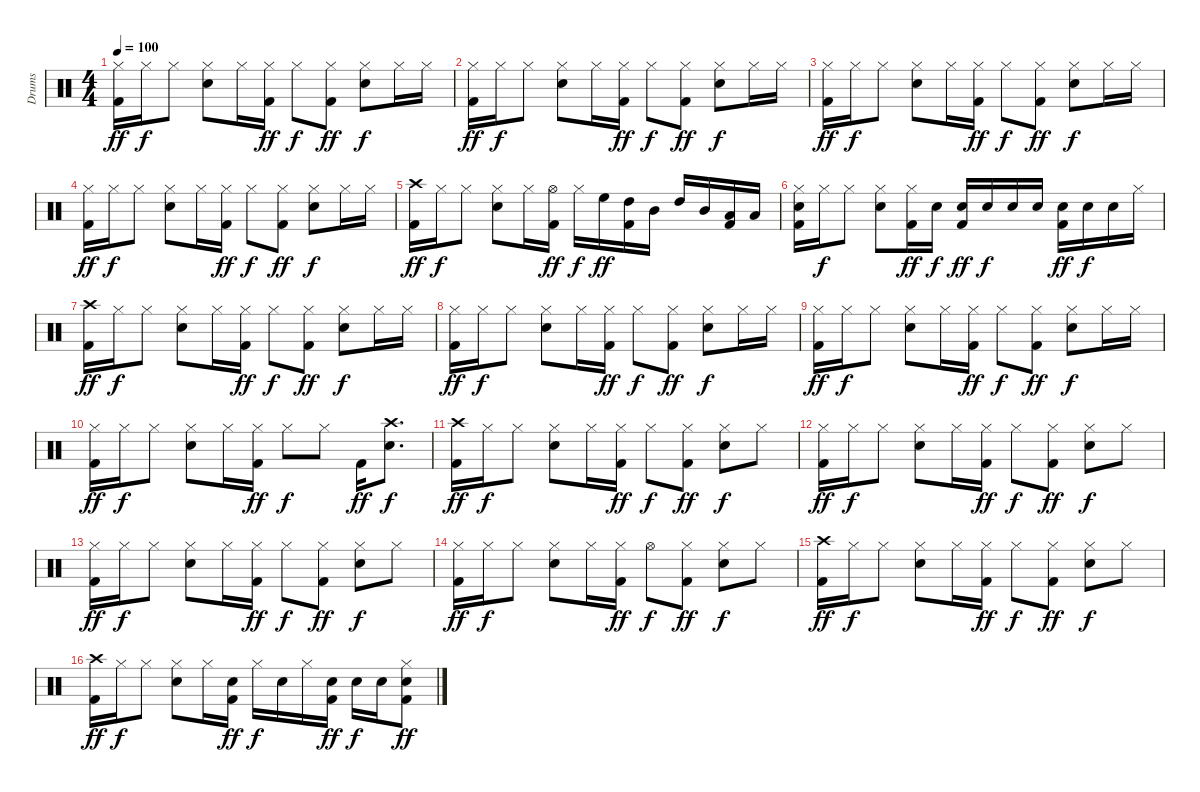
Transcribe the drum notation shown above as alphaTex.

\track ("Drums" "Drums") {instrument percussion}
\staff {score}
\articulation defaults
\ts (4 4)
\tempo 100
\clef neutral
\ks c
("Hi-Hat (closed)" "Kick (hit) 2").16{dy ff} "Hi-Hat (closed)".16{dy f} "Hi-Hat (closed)".8 ("Hi-Hat (closed)" "Snare (hit) 2").8 "Hi-Hat (closed)".16 ("Hi-Hat (closed)" "Kick (hit) 2").16{dy ff} "Hi-Hat (closed)".8{dy f} ("Hi-Hat (closed)" "Kick (hit) 2").8{dy ff} ("Hi-Hat (closed)" "Snare (hit) 2").8{dy f} "Hi-Hat (closed)".16 "Hi-Hat (closed)".16 |
("Hi-Hat (closed)" "Kick (hit) 2").16{dy ff} "Hi-Hat (closed)".16{dy f} "Hi-Hat (closed)".8 ("Hi-Hat (closed)" "Snare (hit) 2").8 "Hi-Hat (closed)".16 ("Hi-Hat (closed)" "Kick (hit) 2").16{dy ff} "Hi-Hat (closed)".8{dy f} ("Hi-Hat (closed)" "Kick (hit) 2").8{dy ff} ("Hi-Hat (closed)" "Snare (hit) 2").8{dy f} "Hi-Hat (closed)".16 "Hi-Hat (closed)".16 |
("Hi-Hat (closed)" "Kick (hit) 2").16{dy ff} "Hi-Hat (closed)".16{dy f} "Hi-Hat (closed)".8 ("Hi-Hat (closed)" "Snare (hit) 2").8 "Hi-Hat (closed)".16 ("Hi-Hat (closed)" "Kick (hit) 2").16{dy ff} "Hi-Hat (closed)".8{dy f} ("Hi-Hat (closed)" "Kick (hit) 2").8{dy ff} ("Hi-Hat (closed)" "Snare (hit) 2").8{dy f} "Hi-Hat (closed)".16 "Hi-Hat (closed)".16 |
("Hi-Hat (closed)" "Kick (hit) 2").16{dy ff} "Hi-Hat (closed)".16{dy f} "Hi-Hat (closed)".8 ("Hi-Hat (closed)" "Snare (hit) 2").8 "Hi-Hat (closed)".16 ("Hi-Hat (closed)" "Kick (hit) 2").16{dy ff} "Hi-Hat (closed)".8{dy f} ("Hi-Hat (closed)" "Kick (hit) 2").8{dy ff} ("Hi-Hat (closed)" "Snare (hit) 2").8{dy f} "Hi-Hat (closed)".16 "Hi-Hat (closed)".16 |
("Crash high (hit)" "Kick (hit) 2").16{dy ff} "Hi-Hat (closed)".16{dy f} "Hi-Hat (closed)".8 ("Hi-Hat (closed)" "Snare (hit) 2").8 "Hi-Hat (closed)".16 ("Hi-Hat (open)" "Kick (hit) 2").16{dy ff} "Hi-Hat (closed)".16{dy f} "High Floor Tom (hit)".16{dy ff} ("High Tom (hit)" "Kick (hit) 2").16 "Mid Tom (hit)".16 "High Tom (hit)".16 "Mid Tom (hit)".16 ("Low Tom (hit)" "Kick (hit) 2").16 "Low Tom (hit)".16 |
("Hi-Hat (closed)" "Snare (hit) 2" "Kick (hit) 2").16 "Hi-Hat (closed)".16{dy f} "Hi-Hat (closed)".8 ("Hi-Hat (closed)" "Snare (hit) 2").8 ("Hi-Hat (closed)" "Kick (hit) 2").16{dy ff} "Snare (hit) 2".16{dy f} ("Snare (hit) 2" "Kick (hit) 2").16{dy ff} "Snare (hit) 2".16{dy f} "Snare (hit) 2".16 "Snare (hit) 2".16 ("Snare (hit) 2" "Kick (hit) 2").16{dy ff} "Snare (hit) 2".16{dy f} "Snare (hit) 2".16 "Hi-Hat (closed)".16 |
("Crash high (hit)" "Kick (hit) 2").16{dy ff} "Hi-Hat (closed)".16{dy f} "Hi-Hat (closed)".8 ("Hi-Hat (closed)" "Snare (hit) 2").8 "Hi-Hat (closed)".16 ("Hi-Hat (closed)" "Kick (hit) 2").16{dy ff} "Hi-Hat (closed)".8{dy f} ("Hi-Hat (closed)" "Kick (hit) 2").8{dy ff} ("Hi-Hat (closed)" "Snare (hit) 2").8{dy f} "Hi-Hat (closed)".16 "Hi-Hat (closed)".16 |
("Hi-Hat (closed)" "Kick (hit) 2").16{dy ff} "Hi-Hat (closed)".16{dy f} "Hi-Hat (closed)".8 ("Hi-Hat (closed)" "Snare (hit) 2").8 "Hi-Hat (closed)".16 ("Hi-Hat (closed)" "Kick (hit) 2").16{dy ff} "Hi-Hat (closed)".8{dy f} ("Hi-Hat (closed)" "Kick (hit) 2").8{dy ff} ("Hi-Hat (closed)" "Snare (hit) 2").8{dy f} "Hi-Hat (closed)".16 "Hi-Hat (closed)".16 |
("Hi-Hat (closed)" "Kick (hit) 2").16{dy ff} "Hi-Hat (closed)".16{dy f} "Hi-Hat (closed)".8 ("Hi-Hat (closed)" "Snare (hit) 2").8 "Hi-Hat (closed)".16 ("Hi-Hat (closed)" "Kick (hit) 2").16{dy ff} "Hi-Hat (closed)".8{dy f} ("Hi-Hat (closed)" "Kick (hit) 2").8{dy ff} ("Hi-Hat (closed)" "Snare (hit) 2").8{dy f} "Hi-Hat (closed)".16 "Hi-Hat (closed)".16 |
("Hi-Hat (closed)" "Kick (hit) 2").16{dy ff} "Hi-Hat (closed)".16{dy f} "Hi-Hat (closed)".8 ("Hi-Hat (closed)" "Snare (hit) 2").8 "Hi-Hat (closed)".16 ("Hi-Hat (closed)" "Kick (hit) 2").16{dy ff} "Hi-Hat (closed)".8{dy f} "Hi-Hat (closed)".8 "Kick (hit) 2".16{dy ff} ("Crash high (hit)" "Snare (hit) 2").8{d dy f} |
("Crash high (hit)" "Kick (hit) 2").16{dy ff} "Hi-Hat (closed)".16{dy f} "Hi-Hat (closed)".8 ("Hi-Hat (closed)" "Snare (hit) 2").8 "Hi-Hat (closed)".16 ("Hi-Hat (closed)" "Kick (hit) 2").16{dy ff} "Hi-Hat (closed)".8{dy f} ("Hi-Hat (closed)" "Kick (hit) 2").8{dy ff} ("Hi-Hat (closed)" "Snare (hit) 2").8{dy f} "Hi-Hat (closed)".8 |
("Hi-Hat (closed)" "Kick (hit) 2").16{dy ff} "Hi-Hat (closed)".16{dy f} "Hi-Hat (closed)".8 ("Hi-Hat (closed)" "Snare (hit) 2").8 "Hi-Hat (closed)".16 ("Hi-Hat (closed)" "Kick (hit) 2").16{dy ff} "Hi-Hat (closed)".8{dy f} ("Hi-Hat (closed)" "Kick (hit) 2").8{dy ff} ("Hi-Hat (closed)" "Snare (hit) 2").8{dy f} "Hi-Hat (closed)".8 |
("Hi-Hat (closed)" "Kick (hit) 2").16{dy ff} "Hi-Hat (closed)".16{dy f} "Hi-Hat (closed)".8 ("Hi-Hat (closed)" "Snare (hit) 2").8 "Hi-Hat (closed)".16 ("Hi-Hat (closed)" "Kick (hit) 2").16{dy ff} "Hi-Hat (closed)".8{dy f} ("Hi-Hat (closed)" "Kick (hit) 2").8{dy ff} ("Hi-Hat (closed)" "Snare (hit) 2").8{dy f} "Hi-Hat (closed)".8 |
("Hi-Hat (closed)" "Kick (hit) 2").16{dy ff} "Hi-Hat (closed)".16{dy f} "Hi-Hat (closed)".8 ("Hi-Hat (closed)" "Snare (hit) 2").8 "Hi-Hat (closed)".16 ("Hi-Hat (closed)" "Kick (hit) 2").16{dy ff} "Hi-Hat (open)".8{dy f} ("Hi-Hat (closed)" "Kick (hit) 2").8{dy ff} ("Hi-Hat (closed)" "Snare (hit) 2").8{dy f} "Hi-Hat (closed)".8 |
("Crash high (hit)" "Kick (hit) 2").16{dy ff} "Hi-Hat (closed)".16{dy f} "Hi-Hat (closed)".8 ("Hi-Hat (closed)" "Snare (hit) 2").8 "Hi-Hat (closed)".16 ("Hi-Hat (closed)" "Kick (hit) 2").16{dy ff} "Hi-Hat (closed)".8{dy f} ("Hi-Hat (closed)" "Kick (hit) 2").8{dy ff} ("Hi-Hat (closed)" "Snare (hit) 2").8{dy f} "Hi-Hat (closed)".8 |
("Crash high (hit)" "Kick (hit) 2").16{dy ff} "Hi-Hat (closed)".16{dy f} "Hi-Hat (closed)".8 ("Hi-Hat (closed)" "Snare (hit) 2").8 "Hi-Hat (closed)".16 ("Snare (hit) 2" "Kick (hit) 2").16{dy ff} "Hi-Hat (closed)".16{dy f} "Snare (hit) 2".16 "Hi-Hat (closed)".16 ("Snare (hit) 2" "Kick (hit) 2").16{dy ff} "Snare (hit) 2".16{dy f} "Snare (hit) 2".16 ("Hi-Hat (closed)" "Snare (hit) 2" "Kick (hit) 2").8{dy ff}
